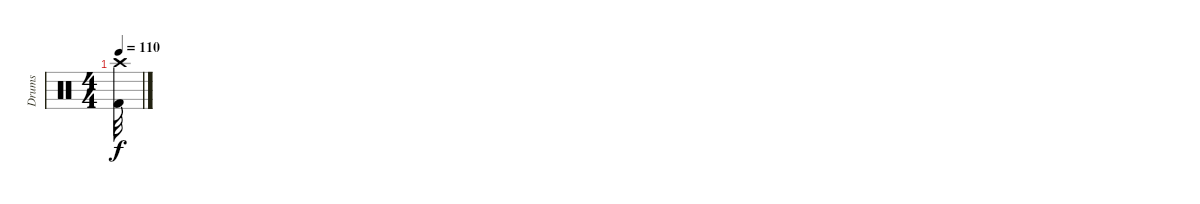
\track ("Drums" "Drums") {instrument percussion}
\staff {score}
\articulation defaults
\ts (4 4)
\tempo 110
\clef neutral
\ks c
("Crash high (hit)" "Kick (hit) 2").32{dy f}
